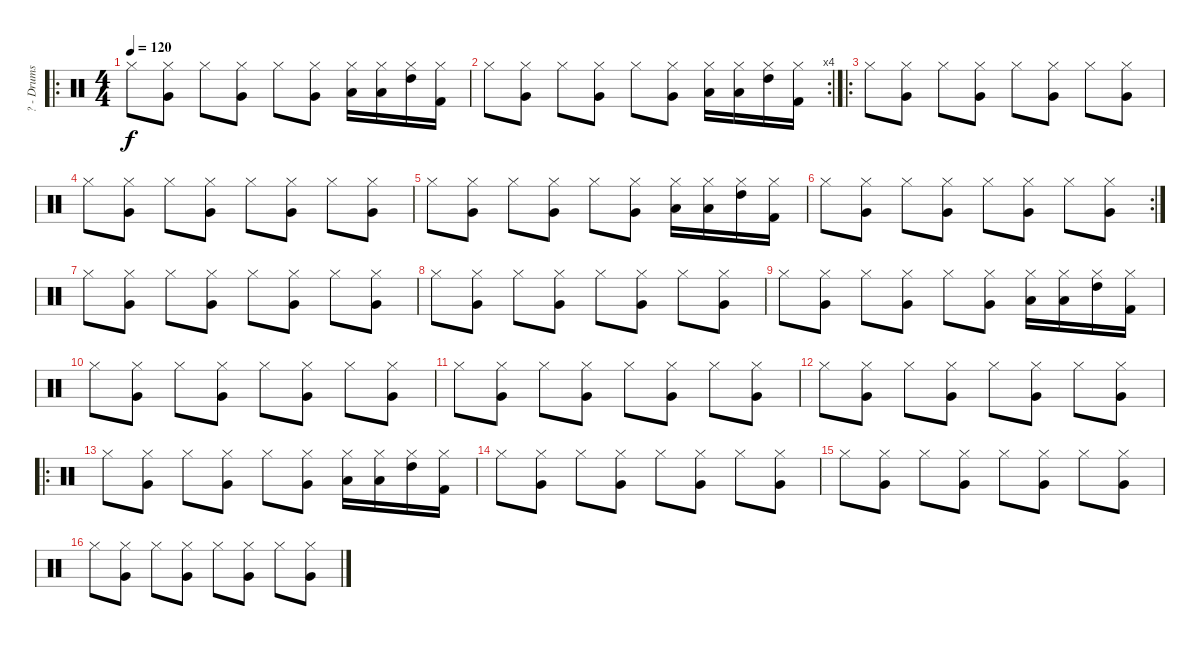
\track ("? - Drums" "? - Drums") {instrument percussion}
\staff {score}
\articulation defaults
\ro
\ts (4 4)
\tempo 120
\clef neutral
\ks c "Hi-Hat (closed)".8{dy f}
("Hi-Hat (closed)" "Very Low Tom (hit)").8 "Hi-Hat (closed)".8 ("Hi-Hat (closed)" "Very Low Tom (hit)").8 "Hi-Hat (closed)".8 ("Hi-Hat (closed)" "Very Low Tom (hit)").8 ("Hi-Hat (closed)" "Low Tom (hit)").16 ("Hi-Hat (closed)" "Low Tom (hit)").16 ("Hi-Hat (closed)" "High Tom (hit)").16 ("Hi-Hat (closed)" "Kick (hit) 2").16 |
\rc 4 "Hi-Hat (closed)".8
("Hi-Hat (closed)" "Very Low Tom (hit)").8 "Hi-Hat (closed)".8 ("Hi-Hat (closed)" "Very Low Tom (hit)").8 "Hi-Hat (closed)".8 ("Hi-Hat (closed)" "Very Low Tom (hit)").8 ("Hi-Hat (closed)" "Low Tom (hit)").16 ("Hi-Hat (closed)" "Low Tom (hit)").16 ("Hi-Hat (closed)" "High Tom (hit)").16 ("Hi-Hat (closed)" "Kick (hit) 2").16 |
\ro "Hi-Hat (closed)".8
("Hi-Hat (closed)" "Very Low Tom (hit)").8 "Hi-Hat (closed)".8 ("Hi-Hat (closed)" "Very Low Tom (hit)").8 "Hi-Hat (closed)".8 ("Hi-Hat (closed)" "Very Low Tom (hit)").8 "Hi-Hat (closed)".8 ("Hi-Hat (closed)" "Very Low Tom (hit)").8 |
"Hi-Hat (closed)".8 ("Hi-Hat (closed)" "Very Low Tom (hit)").8 "Hi-Hat (closed)".8 ("Hi-Hat (closed)" "Very Low Tom (hit)").8 "Hi-Hat (closed)".8 ("Hi-Hat (closed)" "Very Low Tom (hit)").8 "Hi-Hat (closed)".8 ("Hi-Hat (closed)" "Very Low Tom (hit)").8 |
"Hi-Hat (closed)".8 ("Hi-Hat (closed)" "Very Low Tom (hit)").8 "Hi-Hat (closed)".8 ("Hi-Hat (closed)" "Very Low Tom (hit)").8 "Hi-Hat (closed)".8 ("Hi-Hat (closed)" "Very Low Tom (hit)").8 ("Hi-Hat (closed)" "Low Tom (hit)").16 ("Hi-Hat (closed)" "Low Tom (hit)").16 ("Hi-Hat (closed)" "High Tom (hit)").16 ("Hi-Hat (closed)" "Kick (hit) 2").16 |
\rc 2 "Hi-Hat (closed)".8
("Hi-Hat (closed)" "Very Low Tom (hit)").8 "Hi-Hat (closed)".8 ("Hi-Hat (closed)" "Very Low Tom (hit)").8 "Hi-Hat (closed)".8 ("Hi-Hat (closed)" "Very Low Tom (hit)").8 "Hi-Hat (closed)".8 ("Hi-Hat (closed)" "Very Low Tom (hit)").8 |
"Hi-Hat (closed)".8 ("Hi-Hat (closed)" "Very Low Tom (hit)").8 "Hi-Hat (closed)".8 ("Hi-Hat (closed)" "Very Low Tom (hit)").8 "Hi-Hat (closed)".8 ("Hi-Hat (closed)" "Very Low Tom (hit)").8 "Hi-Hat (closed)".8 ("Hi-Hat (closed)" "Very Low Tom (hit)").8 |
"Hi-Hat (closed)".8 ("Hi-Hat (closed)" "Very Low Tom (hit)").8 "Hi-Hat (closed)".8 ("Hi-Hat (closed)" "Very Low Tom (hit)").8 "Hi-Hat (closed)".8 ("Hi-Hat (closed)" "Very Low Tom (hit)").8 "Hi-Hat (closed)".8 ("Hi-Hat (closed)" "Very Low Tom (hit)").8 |
"Hi-Hat (closed)".8 ("Hi-Hat (closed)" "Very Low Tom (hit)").8 "Hi-Hat (closed)".8 ("Hi-Hat (closed)" "Very Low Tom (hit)").8 "Hi-Hat (closed)".8 ("Hi-Hat (closed)" "Very Low Tom (hit)").8 ("Hi-Hat (closed)" "Low Tom (hit)").16 ("Hi-Hat (closed)" "Low Tom (hit)").16 ("Hi-Hat (closed)" "High Tom (hit)").16 ("Hi-Hat (closed)" "Kick (hit) 2").16 |
"Hi-Hat (closed)".8 ("Hi-Hat (closed)" "Very Low Tom (hit)").8 "Hi-Hat (closed)".8 ("Hi-Hat (closed)" "Very Low Tom (hit)").8 "Hi-Hat (closed)".8 ("Hi-Hat (closed)" "Very Low Tom (hit)").8 "Hi-Hat (closed)".8 ("Hi-Hat (closed)" "Very Low Tom (hit)").8 |
"Hi-Hat (closed)".8 ("Hi-Hat (closed)" "Very Low Tom (hit)").8 "Hi-Hat (closed)".8 ("Hi-Hat (closed)" "Very Low Tom (hit)").8 "Hi-Hat (closed)".8 ("Hi-Hat (closed)" "Very Low Tom (hit)").8 "Hi-Hat (closed)".8 ("Hi-Hat (closed)" "Very Low Tom (hit)").8 |
"Hi-Hat (closed)".8 ("Hi-Hat (closed)" "Very Low Tom (hit)").8 "Hi-Hat (closed)".8 ("Hi-Hat (closed)" "Very Low Tom (hit)").8 "Hi-Hat (closed)".8 ("Hi-Hat (closed)" "Very Low Tom (hit)").8 "Hi-Hat (closed)".8 ("Hi-Hat (closed)" "Very Low Tom (hit)").8 |
\ro "Hi-Hat (closed)".8
("Hi-Hat (closed)" "Very Low Tom (hit)").8 "Hi-Hat (closed)".8 ("Hi-Hat (closed)" "Very Low Tom (hit)").8 "Hi-Hat (closed)".8 ("Hi-Hat (closed)" "Very Low Tom (hit)").8 ("Hi-Hat (closed)" "Low Tom (hit)").16 ("Hi-Hat (closed)" "Low Tom (hit)").16 ("Hi-Hat (closed)" "High Tom (hit)").16 ("Hi-Hat (closed)" "Kick (hit) 2").16 |
"Hi-Hat (closed)".8 ("Hi-Hat (closed)" "Very Low Tom (hit)").8 "Hi-Hat (closed)".8 ("Hi-Hat (closed)" "Very Low Tom (hit)").8 "Hi-Hat (closed)".8 ("Hi-Hat (closed)" "Very Low Tom (hit)").8 "Hi-Hat (closed)".8 ("Hi-Hat (closed)" "Very Low Tom (hit)").8 |
"Hi-Hat (closed)".8 ("Hi-Hat (closed)" "Very Low Tom (hit)").8 "Hi-Hat (closed)".8 ("Hi-Hat (closed)" "Very Low Tom (hit)").8 "Hi-Hat (closed)".8 ("Hi-Hat (closed)" "Very Low Tom (hit)").8 "Hi-Hat (closed)".8 ("Hi-Hat (closed)" "Very Low Tom (hit)").8 |
"Hi-Hat (closed)".8 ("Hi-Hat (closed)" "Very Low Tom (hit)").8 "Hi-Hat (closed)".8 ("Hi-Hat (closed)" "Very Low Tom (hit)").8 "Hi-Hat (closed)".8 ("Hi-Hat (closed)" "Very Low Tom (hit)").8 "Hi-Hat (closed)".8 ("Hi-Hat (closed)" "Very Low Tom (hit)").8
